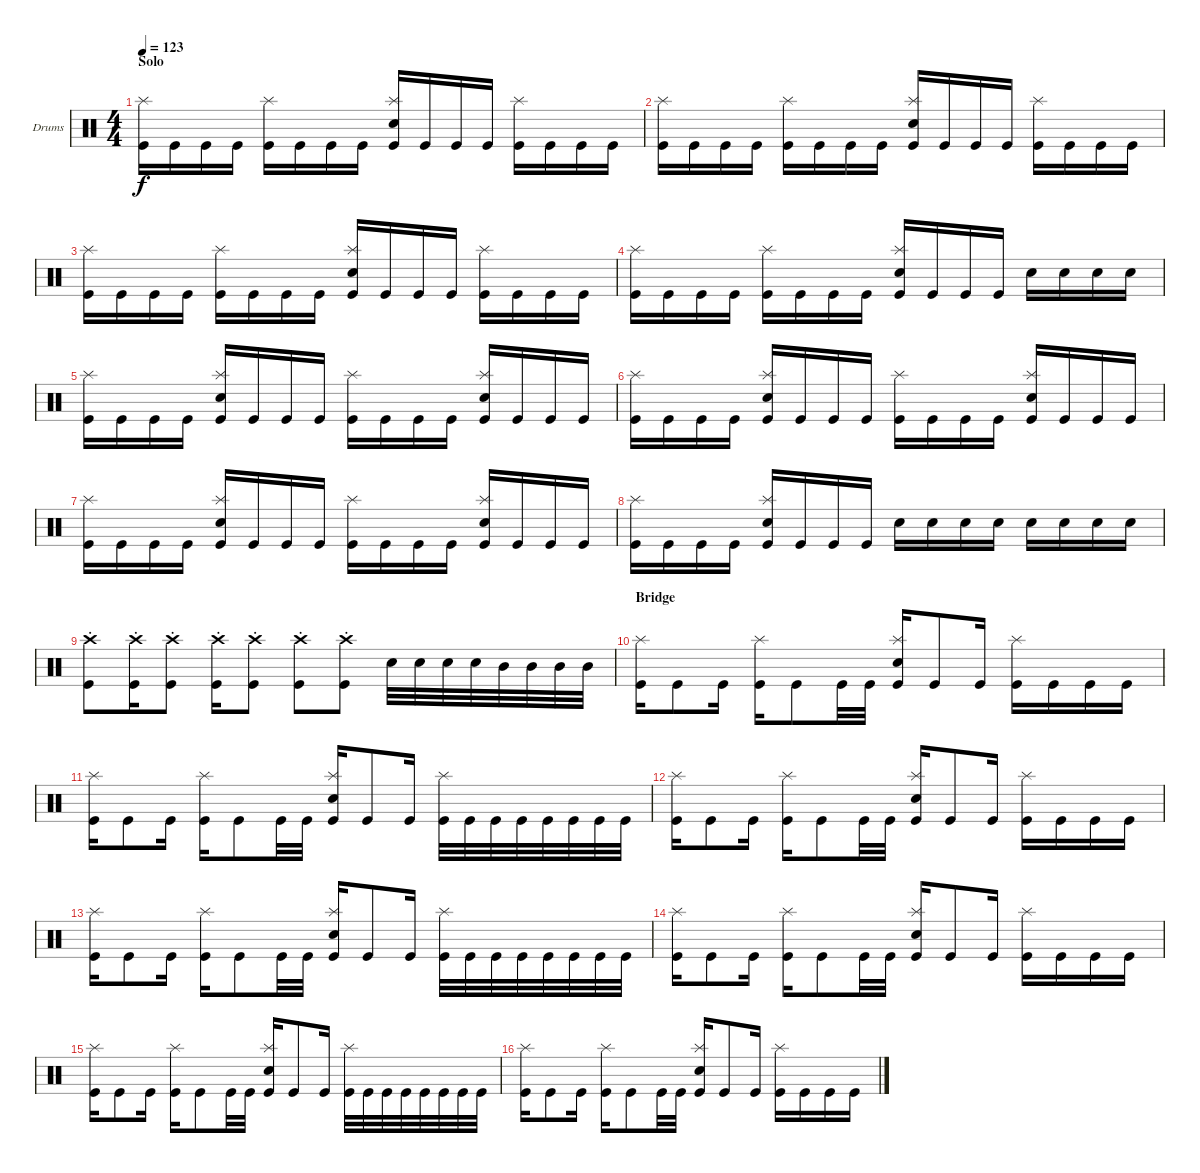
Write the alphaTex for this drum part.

\defaultSystemsLayout 4
\bracketExtendMode groupsimilarinstruments
\firstSystemTrackNameOrientation horizontal
\otherSystemsTrackNameOrientation horizontal
\track ("Drumkit" "Drums") {instrument percussion}
\staff {score}
\articulation defaults
\ts (4 4)
\section ("" "Solo")
\tempo 123
\clef neutral
\scale
0.333333
\ks c
("Kick (hit)" "Splash (hit)").16{dy f} "Kick (hit)".16 "Kick (hit)".16 "Kick (hit)".16 ("Kick (hit)" "Splash (hit)").16 "Kick (hit)".16 "Kick (hit)".16 "Kick (hit)".16 ("Kick (hit)" "Snare (hit) 2" "Splash (hit)").16 "Kick (hit)".16 "Kick (hit)".16 "Kick (hit)".16 ("Kick (hit)" "Splash (hit)").16 "Kick (hit)".16 "Kick (hit)".16 "Kick (hit)".16 |
\scale
0.333333 ("Kick (hit)" "Splash (hit)").16 "Kick (hit)".16 "Kick (hit)".16 "Kick (hit)".16 ("Kick (hit)" "Splash (hit)").16 "Kick (hit)".16 "Kick (hit)".16 "Kick (hit)".16 ("Kick (hit)" "Snare (hit) 2" "Splash (hit)").16 "Kick (hit)".16 "Kick (hit)".16 "Kick (hit)".16 ("Kick (hit)" "Splash (hit)").16 "Kick (hit)".16 "Kick (hit)".16 "Kick (hit)".16 |
\scale
0.333333 ("Kick (hit)" "Splash (hit)").16 "Kick (hit)".16 "Kick (hit)".16 "Kick (hit)".16 ("Kick (hit)" "Splash (hit)").16 "Kick (hit)".16 "Kick (hit)".16 "Kick (hit)".16 ("Kick (hit)" "Snare (hit) 2" "Splash (hit)").16 "Kick (hit)".16 "Kick (hit)".16 "Kick (hit)".16 ("Kick (hit)" "Splash (hit)").16 "Kick (hit)".16 "Kick (hit)".16 "Kick (hit)".16 |
\scale
0.333333 ("Kick (hit)" "Splash (hit)").16 "Kick (hit)".16 "Kick (hit)".16 "Kick (hit)".16 ("Kick (hit)" "Splash (hit)").16 "Kick (hit)".16 "Kick (hit)".16 "Kick (hit)".16 ("Kick (hit)" "Snare (hit) 2" "Splash (hit)").16 "Kick (hit)".16 "Kick (hit)".16 "Kick (hit)".16 "Snare (hit) 2".16 "Snare (hit) 2".16 "Snare (hit) 2".16 "Snare (hit) 2".16 |
\scale
0.333333 ("Kick (hit)" "Splash (hit)").16 "Kick (hit)".16 "Kick (hit)".16 "Kick (hit)".16 ("Kick (hit)" "Splash (hit)" "Snare (hit) 2").16 "Kick (hit)".16 "Kick (hit)".16 "Kick (hit)".16 ("Kick (hit)" "Splash (hit)").16 "Kick (hit)".16 "Kick (hit)".16 "Kick (hit)".16 ("Kick (hit)" "Splash (hit)" "Snare (hit) 2").16 "Kick (hit)".16 "Kick (hit)".16 "Kick (hit)".16 |
\scale
0.333333 ("Kick (hit)" "Splash (hit)").16 "Kick (hit)".16 "Kick (hit)".16 "Kick (hit)".16 ("Kick (hit)" "Splash (hit)" "Snare (hit) 2").16 "Kick (hit)".16 "Kick (hit)".16 "Kick (hit)".16 ("Kick (hit)" "Splash (hit)").16 "Kick (hit)".16 "Kick (hit)".16 "Kick (hit)".16 ("Kick (hit)" "Splash (hit)" "Snare (hit) 2").16 "Kick (hit)".16 "Kick (hit)".16 "Kick (hit)".16 |
\scale
0.333333 ("Kick (hit)" "Splash (hit)").16 "Kick (hit)".16 "Kick (hit)".16 "Kick (hit)".16 ("Kick (hit)" "Splash (hit)" "Snare (hit) 2").16 "Kick (hit)".16 "Kick (hit)".16 "Kick (hit)".16 ("Kick (hit)" "Splash (hit)").16 "Kick (hit)".16 "Kick (hit)".16 "Kick (hit)".16 ("Kick (hit)" "Splash (hit)" "Snare (hit) 2").16 "Kick (hit)".16 "Kick (hit)".16 "Kick (hit)".16 |
\scale
0.333333 ("Kick (hit)" "Splash (hit)").16 "Kick (hit)".16 "Kick (hit)".16 "Kick (hit)".16 ("Kick (hit)" "Splash (hit)" "Snare (hit) 2").16 "Kick (hit)".16 "Kick (hit)".16 "Kick (hit)".16 "Snare (hit) 2".16 "Snare (hit) 2".16 "Snare (hit) 2".16 "Snare (hit) 2".16 "Snare (hit) 2".16 "Snare (hit) 2".16 "Snare (hit) 2".16 "Snare (hit) 2".16 |
\scale
0.333333 ("Kick (hit)"{st} "Crash high (hit)"{st}).8 ("Kick (hit)"{st} "Crash high (hit)"{st}).16 ("Kick (hit)"{st} "Crash high (hit)"{st}).8 ("Kick (hit)"{st} "Crash high (hit)"{st}).16 ("Kick (hit)"{st} "Crash high (hit)"{st}).8 ("Kick (hit)"{st} "Crash high (hit)"{st}).8 ("Kick (hit)"{st} "Crash high (hit)"{st}).8 "Snare (hit) 2".32 "Snare (hit) 2".32 "Snare (hit) 2".32 "Snare (hit) 2".32 "Mid Tom (hit)".32 "Mid Tom (hit)".32 "Mid Tom (hit)".32 "Mid Tom (hit)".32 |
\section ("" "Bridge")
\scale
0.333333 ("Kick (hit)" "Splash (hit)").16 "Kick (hit)".8 "Kick (hit)".16 ("Kick (hit)" "Splash (hit)").16 "Kick (hit)".8 "Kick (hit)".32 "Kick (hit)".32 ("Kick (hit)" "Snare (hit) 2" "Splash (hit)").16 "Kick (hit)".8 "Kick (hit)".16 ("Kick (hit)" "Splash (hit)").16 "Kick (hit)".16 "Kick (hit)".16 "Kick (hit)".16 |
\scale
0.333333 ("Kick (hit)" "Splash (hit)").16 "Kick (hit)".8 "Kick (hit)".16 ("Kick (hit)" "Splash (hit)").16 "Kick (hit)".8 "Kick (hit)".32 "Kick (hit)".32 ("Kick (hit)" "Snare (hit) 2" "Splash (hit)").16 "Kick (hit)".8 "Kick (hit)".16 ("Kick (hit)" "Splash (hit)").32 "Kick (hit)".32 "Kick (hit)".32 "Kick (hit)".32 "Kick (hit)".32 "Kick (hit)".32 "Kick (hit)".32 "Kick (hit)".32 |
\scale
0.333333 ("Kick (hit)" "Splash (hit)").16 "Kick (hit)".8 "Kick (hit)".16 ("Kick (hit)" "Splash (hit)").16 "Kick (hit)".8 "Kick (hit)".32 "Kick (hit)".32 ("Kick (hit)" "Snare (hit) 2" "Splash (hit)").16 "Kick (hit)".8 "Kick (hit)".16 ("Kick (hit)" "Splash (hit)").16 "Kick (hit)".16 "Kick (hit)".16 "Kick (hit)".16 |
\scale
0.333333 ("Kick (hit)" "Splash (hit)").16 "Kick (hit)".8 "Kick (hit)".16 ("Kick (hit)" "Splash (hit)").16 "Kick (hit)".8 "Kick (hit)".32 "Kick (hit)".32 ("Kick (hit)" "Snare (hit) 2" "Splash (hit)").16 "Kick (hit)".8 "Kick (hit)".16 ("Kick (hit)" "Splash (hit)").32 "Kick (hit)".32 "Kick (hit)".32 "Kick (hit)".32 "Kick (hit)".32 "Kick (hit)".32 "Kick (hit)".32 "Kick (hit)".32 |
\scale
0.333333 ("Kick (hit)" "Splash (hit)").16 "Kick (hit)".8 "Kick (hit)".16 ("Kick (hit)" "Splash (hit)").16 "Kick (hit)".8 "Kick (hit)".32 "Kick (hit)".32 ("Kick (hit)" "Snare (hit) 2" "Splash (hit)").16 "Kick (hit)".8 "Kick (hit)".16 ("Kick (hit)" "Splash (hit)").16 "Kick (hit)".16 "Kick (hit)".16 "Kick (hit)".16 |
\scale
0.333333 ("Kick (hit)" "Splash (hit)").16 "Kick (hit)".8 "Kick (hit)".16 ("Kick (hit)" "Splash (hit)").16 "Kick (hit)".8 "Kick (hit)".32 "Kick (hit)".32 ("Kick (hit)" "Snare (hit) 2" "Splash (hit)").16 "Kick (hit)".8 "Kick (hit)".16 ("Kick (hit)" "Splash (hit)").32 "Kick (hit)".32 "Kick (hit)".32 "Kick (hit)".32 "Kick (hit)".32 "Kick (hit)".32 "Kick (hit)".32 "Kick (hit)".32 |
\scale
0.333333 ("Kick (hit)" "Splash (hit)").16 "Kick (hit)".8 "Kick (hit)".16 ("Kick (hit)" "Splash (hit)").16 "Kick (hit)".8 "Kick (hit)".32 "Kick (hit)".32 ("Kick (hit)" "Snare (hit) 2" "Splash (hit)").16 "Kick (hit)".8 "Kick (hit)".16 ("Kick (hit)" "Splash (hit)").16 "Kick (hit)".16 "Kick (hit)".16 "Kick (hit)".16
